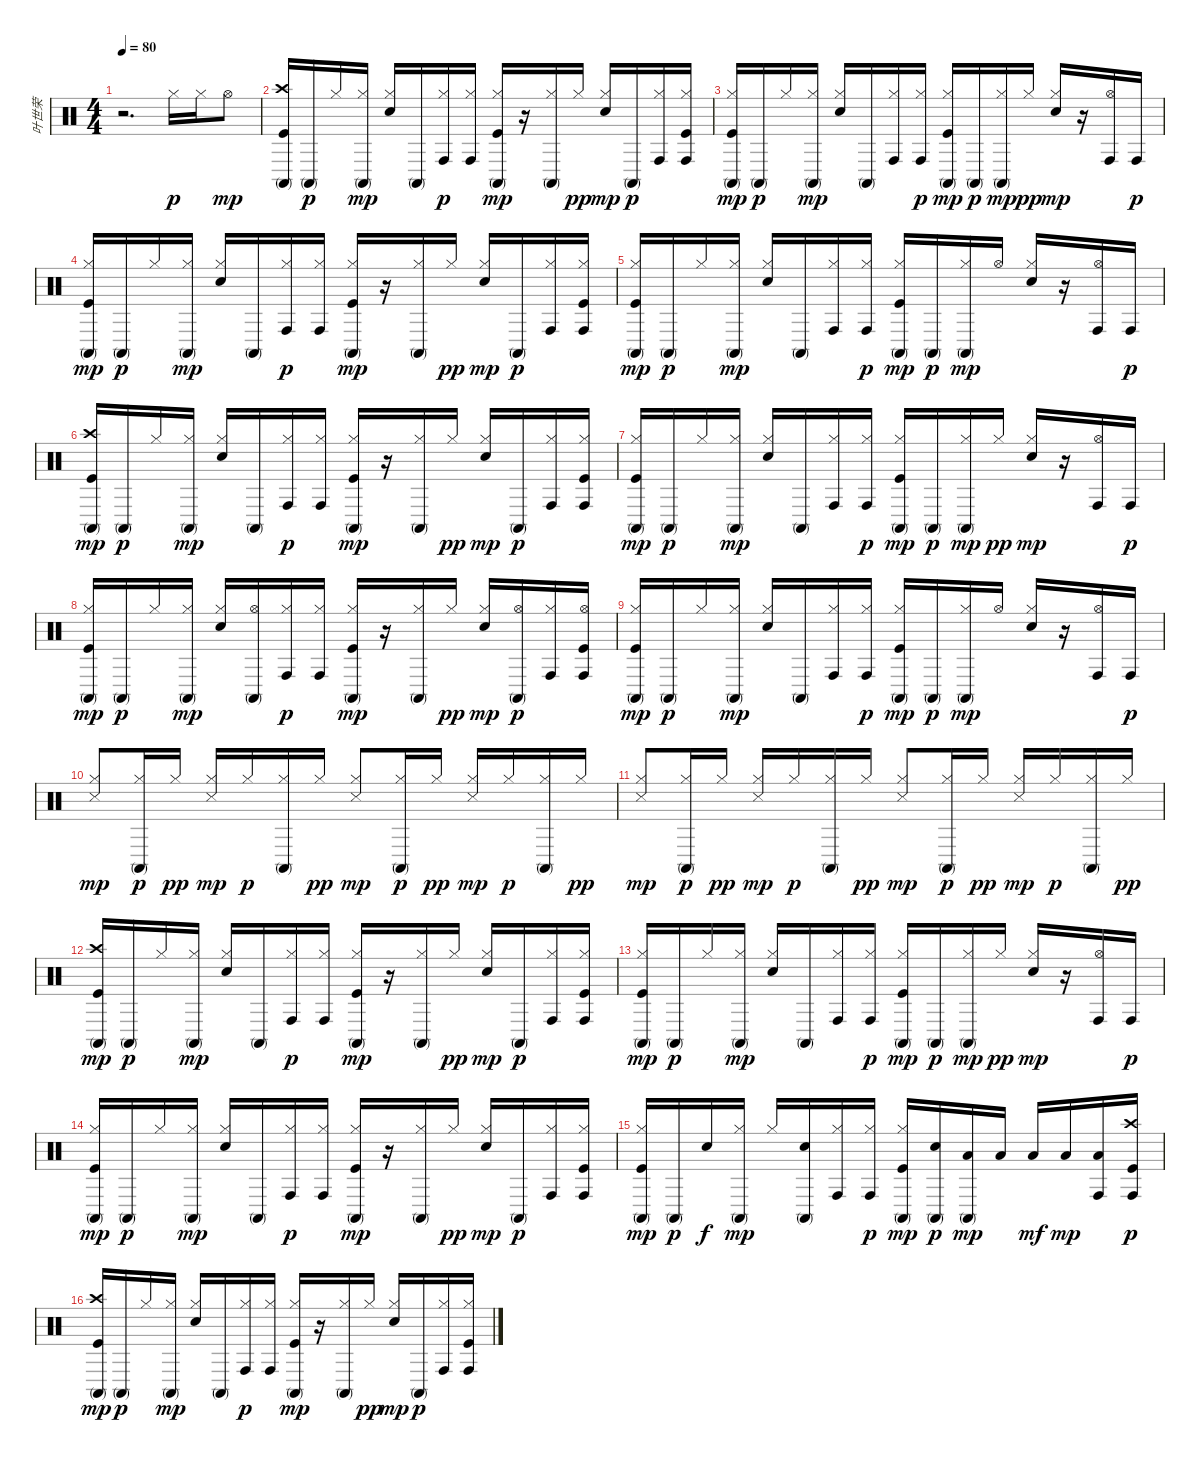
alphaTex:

\track ("叶世荣" "叶世荣") {instrument percussion}
\staff {score}
\articulation defaults
\ts (4 4)
\tempo 80
\clef neutral
\ks c
r.2{d dy f} "Hi-Hat (closed)".16{dy p} "Hi-Hat (closed)".16 "Hi-Hat (open)".8{dy mp} |
("Kick (hit)" "Crash high (hit)" "Conga high (mute)").16 "Conga high (mute)".16{dy p} "Hi-Hat (closed)".16 ("Hi-Hat (closed)" "Conga high (mute)").16{dy mp} ("Snare (hit) 2" "Hi-Hat (closed)").16 "Conga high (mute)".16 ("Hi-Hat (closed)" "Conga high (hit)").16{dy p} ("Hi-Hat (closed)" "Conga high (hit)").16 ("Kick (hit)" "Hi-Hat (closed)" "Conga high (mute)").16{dy mp} r.16 ("Hi-Hat (closed)" "Conga high (mute)").16 "Hi-Hat (closed)".16{dy pp} ("Snare (hit) 2" "Hi-Hat (closed)").16{dy mp} "Conga high (mute)".16{dy p} ("Hi-Hat (closed)" "Conga high (hit)").16 ("Kick (hit)" "Hi-Hat (closed)" "Conga high (hit)").16 |
("Kick (hit)" "Hi-Hat (closed)" "Conga high (mute)").16{dy mp} "Conga high (mute)".16{dy p} "Hi-Hat (closed)".16 ("Hi-Hat (closed)" "Conga high (mute)").16{dy mp} ("Snare (hit) 2" "Hi-Hat (closed)").16 "Conga high (mute)".16 ("Hi-Hat (closed)" "Conga high (hit)").16 ("Hi-Hat (closed)" "Conga high (hit)").16{dy p} ("Kick (hit)" "Hi-Hat (closed)" "Conga high (mute)").16{dy mp} "Conga high (mute)".16{dy p} ("Hi-Hat (closed)" "Conga high (mute)").16{dy mp} "Hi-Hat (closed)".16{dy pp} ("Snare (hit) 2" "Hi-Hat (closed)").16{dy mp} r.16 ("Hi-Hat (open)" "Conga high (hit)").16 "Conga high (hit)".16{dy p} |
("Kick (hit)" "Hi-Hat (closed)" "Conga high (mute)").16{dy mp} "Conga high (mute)".16{dy p} "Hi-Hat (closed)".16 ("Hi-Hat (closed)" "Conga high (mute)").16{dy mp} ("Snare (hit) 2" "Hi-Hat (closed)").16 "Conga high (mute)".16 ("Hi-Hat (closed)" "Conga high (hit)").16{dy p} ("Hi-Hat (closed)" "Conga high (hit)").16 ("Kick (hit)" "Hi-Hat (closed)" "Conga high (mute)").16{dy mp} r.16 ("Hi-Hat (closed)" "Conga high (mute)").16 "Hi-Hat (closed)".16{dy pp} ("Snare (hit) 2" "Hi-Hat (closed)").16{dy mp} "Conga high (mute)".16{dy p} ("Hi-Hat (closed)" "Conga high (hit)").16 ("Kick (hit)" "Hi-Hat (closed)" "Conga high (hit)").16 |
("Kick (hit)" "Hi-Hat (closed)" "Conga high (mute)").16{dy mp} "Conga high (mute)".16{dy p} "Hi-Hat (closed)".16 ("Hi-Hat (closed)" "Conga high (mute)").16{dy mp} ("Snare (hit) 2" "Hi-Hat (closed)").16 "Conga high (mute)".16 ("Hi-Hat (closed)" "Conga high (hit)").16 ("Hi-Hat (closed)" "Conga high (hit)").16{dy p} ("Kick (hit)" "Hi-Hat (closed)" "Conga high (mute)").16{dy mp} "Conga high (mute)".16{dy p} ("Hi-Hat (closed)" "Conga high (mute)").16{dy mp} "Hi-Hat (open)".16 ("Snare (hit) 2" "Hi-Hat (closed)").16 r.16 ("Hi-Hat (open)" "Conga high (hit)").16 "Conga high (hit)".16{dy p} |
("Kick (hit)" "Crash high (hit)" "Conga high (mute)").16{dy mp} "Conga high (mute)".16{dy p} "Hi-Hat (closed)".16 ("Hi-Hat (closed)" "Conga high (mute)").16{dy mp} ("Snare (hit) 2" "Hi-Hat (closed)").16 "Conga high (mute)".16 ("Hi-Hat (closed)" "Conga high (hit)").16{dy p} ("Hi-Hat (closed)" "Conga high (hit)").16 ("Kick (hit)" "Hi-Hat (closed)" "Conga high (mute)").16{dy mp} r.16 ("Hi-Hat (closed)" "Conga high (mute)").16 "Hi-Hat (closed)".16{dy pp} ("Snare (hit) 2" "Hi-Hat (closed)").16{dy mp} "Conga high (mute)".16{dy p} ("Hi-Hat (closed)" "Conga high (hit)").16 ("Kick (hit)" "Hi-Hat (closed)" "Conga high (hit)").16 |
("Kick (hit)" "Hi-Hat (closed)" "Conga high (mute)").16{dy mp} "Conga high (mute)".16{dy p} "Hi-Hat (closed)".16 ("Hi-Hat (closed)" "Conga high (mute)").16{dy mp} ("Snare (hit) 2" "Hi-Hat (closed)").16 "Conga high (mute)".16 ("Hi-Hat (closed)" "Conga high (hit)").16 ("Hi-Hat (closed)" "Conga high (hit)").16{dy p} ("Kick (hit)" "Hi-Hat (closed)" "Conga high (mute)").16{dy mp} "Conga high (mute)".16{dy p} ("Hi-Hat (closed)" "Conga high (mute)").16{dy mp} "Hi-Hat (closed)".16{dy pp} ("Snare (hit) 2" "Hi-Hat (closed)").16{dy mp} r.16 ("Hi-Hat (open)" "Conga high (hit)").16 "Conga high (hit)".16{dy p} |
("Kick (hit)" "Hi-Hat (closed)" "Conga high (mute)").16{dy mp} "Conga high (mute)".16{dy p} "Hi-Hat (closed)".16 ("Hi-Hat (closed)" "Conga high (mute)").16{dy mp} ("Snare (hit) 2" "Hi-Hat (closed)").16 ("Hi-Hat (open)" "Conga high (mute)").16 ("Hi-Hat (closed)" "Conga high (hit)").16{dy p} ("Hi-Hat (closed)" "Conga high (hit)").16 ("Kick (hit)" "Hi-Hat (closed)" "Conga high (mute)").16{dy mp} r.16 ("Hi-Hat (closed)" "Conga high (mute)").16 "Hi-Hat (closed)".16{dy pp} ("Snare (hit) 2" "Hi-Hat (closed)").16{dy mp} ("Hi-Hat (open)" "Conga high (mute)").16{dy p} ("Hi-Hat (closed)" "Conga high (hit)").16 ("Kick (hit)" "Hi-Hat (open)" "Conga high (hit)").16 |
("Kick (hit)" "Hi-Hat (closed)" "Conga high (mute)").16{dy mp} "Conga high (mute)".16{dy p} "Hi-Hat (closed)".16 ("Hi-Hat (closed)" "Conga high (mute)").16{dy mp} ("Snare (hit) 2" "Hi-Hat (closed)").16 "Conga high (mute)".16 ("Hi-Hat (closed)" "Conga high (hit)").16 ("Hi-Hat (closed)" "Conga high (hit)").16{dy p} ("Kick (hit)" "Hi-Hat (closed)" "Conga high (mute)").16{dy mp} "Conga high (mute)".16{dy p} ("Hi-Hat (closed)" "Conga high (mute)").16{dy mp} "Hi-Hat (open)".16 ("Snare (hit) 2" "Hi-Hat (closed)").16 r.16 ("Hi-Hat (open)" "Conga high (hit)").16 "Conga high (hit)".16{dy p} |
("Snare (side stick) 3" "Hi-Hat (closed)").8{dy mp} ("Hi-Hat (closed)" "Conga high (mute)").16{dy p} "Hi-Hat (closed)".16{dy pp} ("Snare (side stick) 3" "Hi-Hat (closed)").16{dy mp} "Hi-Hat (closed)".16{dy p} ("Hi-Hat (closed)" "Conga high (mute)").16 "Hi-Hat (closed)".16{dy pp} ("Snare (side stick) 3" "Hi-Hat (closed)").8{dy mp} ("Hi-Hat (closed)" "Conga high (mute)").16{dy p} "Hi-Hat (closed)".16{dy pp} ("Snare (side stick) 3" "Hi-Hat (closed)").16{dy mp} "Hi-Hat (closed)".16{dy p} ("Hi-Hat (closed)" "Conga high (mute)").16 "Hi-Hat (closed)".16{dy pp} |
("Snare (side stick) 3" "Hi-Hat (closed)").8{dy mp} ("Hi-Hat (closed)" "Conga high (mute)").16{dy p} "Hi-Hat (closed)".16{dy pp} ("Snare (side stick) 3" "Hi-Hat (closed)").16{dy mp} "Hi-Hat (closed)".16{dy p} ("Hi-Hat (closed)" "Conga high (mute)").16 "Hi-Hat (closed)".16{dy pp} ("Snare (side stick) 3" "Hi-Hat (closed)").8{dy mp} ("Hi-Hat (closed)" "Conga high (mute)").16{dy p} "Hi-Hat (closed)".16{dy pp} ("Snare (side stick) 3" "Hi-Hat (closed)").16{dy mp} "Hi-Hat (closed)".16{dy p} ("Hi-Hat (closed)" "Conga high (mute)").16 "Hi-Hat (closed)".16{dy pp} |
("Kick (hit)" "Crash high (hit)" "Conga high (mute)").16{dy mp} "Conga high (mute)".16{dy p} "Hi-Hat (closed)".16 ("Hi-Hat (closed)" "Conga high (mute)").16{dy mp} ("Snare (hit) 2" "Hi-Hat (closed)").16 "Conga high (mute)".16 ("Hi-Hat (closed)" "Conga high (hit)").16{dy p} ("Hi-Hat (closed)" "Conga high (hit)").16 ("Kick (hit)" "Hi-Hat (closed)" "Conga high (mute)").16{dy mp} r.16 ("Hi-Hat (closed)" "Conga high (mute)").16 "Hi-Hat (closed)".16{dy pp} ("Snare (hit) 2" "Hi-Hat (closed)").16{dy mp} "Conga high (mute)".16{dy p} ("Hi-Hat (closed)" "Conga high (hit)").16 ("Kick (hit)" "Hi-Hat (closed)" "Conga high (hit)").16 |
("Kick (hit)" "Hi-Hat (closed)" "Conga high (mute)").16{dy mp} "Conga high (mute)".16{dy p} "Hi-Hat (closed)".16 ("Hi-Hat (closed)" "Conga high (mute)").16{dy mp} ("Snare (hit) 2" "Hi-Hat (closed)").16 "Conga high (mute)".16 ("Hi-Hat (closed)" "Conga high (hit)").16 ("Hi-Hat (closed)" "Conga high (hit)").16{dy p} ("Kick (hit)" "Hi-Hat (closed)" "Conga high (mute)").16{dy mp} "Conga high (mute)".16{dy p} ("Hi-Hat (closed)" "Conga high (mute)").16{dy mp} "Hi-Hat (closed)".16{dy pp} ("Snare (hit) 2" "Hi-Hat (closed)").16{dy mp} r.16 ("Hi-Hat (open)" "Conga high (hit)").16 "Conga high (hit)".16{dy p} |
("Kick (hit)" "Hi-Hat (closed)" "Conga high (mute)").16{dy mp} "Conga high (mute)".16{dy p} "Hi-Hat (closed)".16 ("Hi-Hat (closed)" "Conga high (mute)").16{dy mp} ("Snare (hit) 2" "Hi-Hat (closed)").16 "Conga high (mute)".16 ("Hi-Hat (closed)" "Conga high (hit)").16{dy p} ("Hi-Hat (closed)" "Conga high (hit)").16 ("Kick (hit)" "Hi-Hat (closed)" "Conga high (mute)").16{dy mp} r.16 ("Hi-Hat (closed)" "Conga high (mute)").16 "Hi-Hat (closed)".16{dy pp} ("Snare (hit) 2" "Hi-Hat (closed)").16{dy mp} "Conga high (mute)".16{dy p} ("Hi-Hat (closed)" "Conga high (hit)").16 ("Kick (hit)" "Hi-Hat (closed)" "Conga high (hit)").16 |
("Kick (hit)" "Hi-Hat (closed)" "Conga high (mute)").16{dy mp} "Conga high (mute)".16{dy p} "Snare (hit) 2".16{dy f} ("Hi-Hat (closed)" "Conga high (mute)").16{dy mp} "Hi-Hat (closed)".16 ("Snare (hit) 2" "Conga high (mute)").16 ("Hi-Hat (closed)" "Conga high (hit)").16 ("Hi-Hat (closed)" "Conga high (hit)").16{dy p} ("Kick (hit)" "Hi-Hat (closed)" "Conga high (mute)").16{dy mp} ("Snare (hit) 2" "Conga high (mute)").16{dy p} ("Low Tom (hit)" "Conga high (mute)").16{dy mp} "Low Tom (hit)".16 "Low Tom (hit)".16{dy mf} "Low Tom (hit)".16{dy mp} ("Low Floor Tom (hit)" "Conga high (hit)").16 ("Kick (hit)" "Crash high (hit)" "Conga high (hit)").16{dy p} |
("Kick (hit)" "Crash high (hit)" "Conga high (mute)").16{dy mp} "Conga high (mute)".16{dy p} "Hi-Hat (closed)".16 ("Hi-Hat (closed)" "Conga high (mute)").16{dy mp} ("Snare (hit) 2" "Hi-Hat (closed)").16 "Conga high (mute)".16 ("Hi-Hat (closed)" "Conga high (hit)").16{dy p} ("Hi-Hat (closed)" "Conga high (hit)").16 ("Kick (hit)" "Hi-Hat (closed)" "Conga high (mute)").16{dy mp} r.16 ("Hi-Hat (closed)" "Conga high (mute)").16 "Hi-Hat (closed)".16{dy pp} ("Snare (hit) 2" "Hi-Hat (closed)").16{dy mp} "Conga high (mute)".16{dy p} ("Hi-Hat (closed)" "Conga high (hit)").16 ("Kick (hit)" "Hi-Hat (closed)" "Conga high (hit)").16
